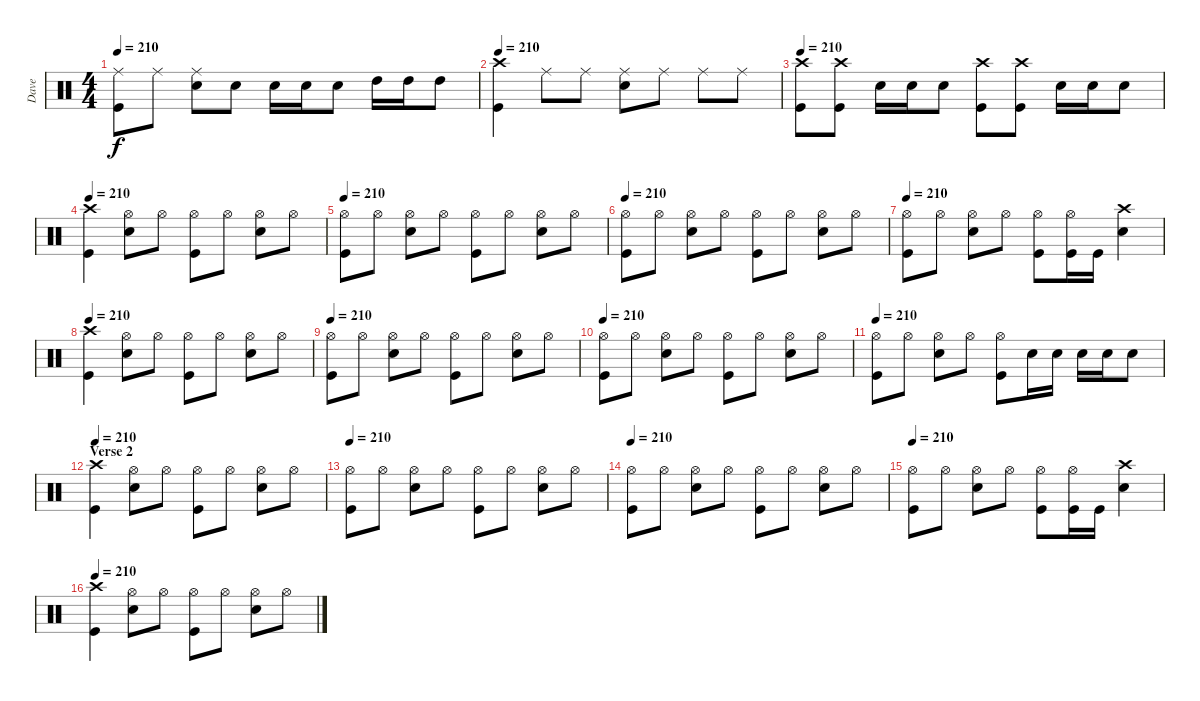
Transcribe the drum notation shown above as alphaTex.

\track ("Dave" "Dave") {instrument percussion}
\staff {score}
\articulation defaults
\ts (4 4)
\tempo 210
\clef neutral
\ks c
("Ride (middle)" "Kick (hit)").8{dy f} "Ride (middle)".8 ("Ride (middle)" "Snare (hit) 2").8 "Snare (hit) 2".8 "Snare (hit) 2".16 "Snare (hit) 2".16 "Snare (hit) 2".8 "High Tom (hit)".16 "High Tom (hit)".16 "High Tom (hit)".8 |
\tempo 210
("Crash high (hit)" "Kick (hit)").4 "Ride (middle)".8 "Ride (middle)".8 ("Ride (middle)" "Snare (hit) 2").8 "Ride (middle)".8 "Ride (middle)".8 "Ride (middle)".8 |
\tempo 210
("Crash high (hit)" "Kick (hit)").8 ("Crash high (hit)" "Kick (hit)").8 "Snare (hit) 2".16 "Snare (hit) 2".16 "Snare (hit) 2".8 ("Crash high (hit)" "Kick (hit)").8 ("Crash high (hit)" "Kick (hit)").8 "Snare (hit) 2".16 "Snare (hit) 2".16 "Snare (hit) 2".8 |
\tempo 210
("Crash high (hit)" "Kick (hit)").4 ("Hi-Hat (open)" "Snare (hit) 2").8 "Hi-Hat (open)".8 ("Hi-Hat (open)" "Kick (hit)").8 "Hi-Hat (open)".8 ("Hi-Hat (open)" "Snare (hit) 2").8 "Hi-Hat (open)".8 |
\tempo 210
("Hi-Hat (open)" "Kick (hit)").8 "Hi-Hat (open)".8 ("Hi-Hat (open)" "Snare (hit) 2").8 "Hi-Hat (open)".8 ("Hi-Hat (open)" "Kick (hit)").8 "Hi-Hat (open)".8 ("Hi-Hat (open)" "Snare (hit) 2").8 "Hi-Hat (open)".8 |
\tempo 210
("Hi-Hat (open)" "Kick (hit)").8 "Hi-Hat (open)".8 ("Hi-Hat (open)" "Snare (hit) 2").8 "Hi-Hat (open)".8 ("Hi-Hat (open)" "Kick (hit)").8 "Hi-Hat (open)".8 ("Hi-Hat (open)" "Snare (hit) 2").8 "Hi-Hat (open)".8 |
\tempo 210
("Hi-Hat (open)" "Kick (hit)").8 "Hi-Hat (open)".8 ("Hi-Hat (open)" "Snare (hit) 2").8 "Hi-Hat (open)".8 ("Hi-Hat (open)" "Kick (hit)").8 ("Hi-Hat (open)" "Kick (hit)").16 "Kick (hit)".16 ("Crash high (hit)" "Snare (hit) 2").4 |
\tempo 210
("Crash high (hit)" "Kick (hit)").4 ("Hi-Hat (open)" "Snare (hit) 2").8 "Hi-Hat (open)".8 ("Hi-Hat (open)" "Kick (hit)").8 "Hi-Hat (open)".8 ("Hi-Hat (open)" "Snare (hit) 2").8 "Hi-Hat (open)".8 |
\tempo 210
("Hi-Hat (open)" "Kick (hit)").8 "Hi-Hat (open)".8 ("Hi-Hat (open)" "Snare (hit) 2").8 "Hi-Hat (open)".8 ("Hi-Hat (open)" "Kick (hit)").8 "Hi-Hat (open)".8 ("Hi-Hat (open)" "Snare (hit) 2").8 "Hi-Hat (open)".8 |
\tempo 210
("Hi-Hat (open)" "Kick (hit)").8 "Hi-Hat (open)".8 ("Hi-Hat (open)" "Snare (hit) 2").8 "Hi-Hat (open)".8 ("Hi-Hat (open)" "Kick (hit)").8 "Hi-Hat (open)".8 ("Hi-Hat (open)" "Snare (hit) 2").8 "Hi-Hat (open)".8 |
\tempo 210
("Hi-Hat (open)" "Kick (hit)").8 "Hi-Hat (open)".8 ("Hi-Hat (open)" "Snare (hit) 2").8 "Hi-Hat (open)".8 ("Hi-Hat (open)" "Kick (hit)").8 "Snare (hit) 2".16 "Snare (hit) 2".16 "Snare (hit) 2".16 "Snare (hit) 2".16 "Snare (hit) 2".8 |
\section ("" "Verse 2")
\tempo 210
("Crash high (hit)" "Kick (hit)").4 ("Hi-Hat (open)" "Snare (hit) 2").8 "Hi-Hat (open)".8 ("Hi-Hat (open)" "Kick (hit)").8 "Hi-Hat (open)".8 ("Hi-Hat (open)" "Snare (hit) 2").8 "Hi-Hat (open)".8 |
\tempo 210
("Hi-Hat (open)" "Kick (hit)").8 "Hi-Hat (open)".8 ("Hi-Hat (open)" "Snare (hit) 2").8 "Hi-Hat (open)".8 ("Hi-Hat (open)" "Kick (hit)").8 "Hi-Hat (open)".8 ("Hi-Hat (open)" "Snare (hit) 2").8 "Hi-Hat (open)".8 |
\tempo 210
("Hi-Hat (open)" "Kick (hit)").8 "Hi-Hat (open)".8 ("Hi-Hat (open)" "Snare (hit) 2").8 "Hi-Hat (open)".8 ("Hi-Hat (open)" "Kick (hit)").8 "Hi-Hat (open)".8 ("Hi-Hat (open)" "Snare (hit) 2").8 "Hi-Hat (open)".8 |
\tempo 210
("Hi-Hat (open)" "Kick (hit)").8 "Hi-Hat (open)".8 ("Hi-Hat (open)" "Snare (hit) 2").8 "Hi-Hat (open)".8 ("Hi-Hat (open)" "Kick (hit)").8 ("Hi-Hat (open)" "Kick (hit)").16 "Kick (hit)".16 ("Crash high (hit)" "Snare (hit) 2").4 |
\tempo 210
("Crash high (hit)" "Kick (hit)").4 ("Hi-Hat (open)" "Snare (hit) 2").8 "Hi-Hat (open)".8 ("Hi-Hat (open)" "Kick (hit)").8 "Hi-Hat (open)".8 ("Hi-Hat (open)" "Snare (hit) 2").8 "Hi-Hat (open)".8
